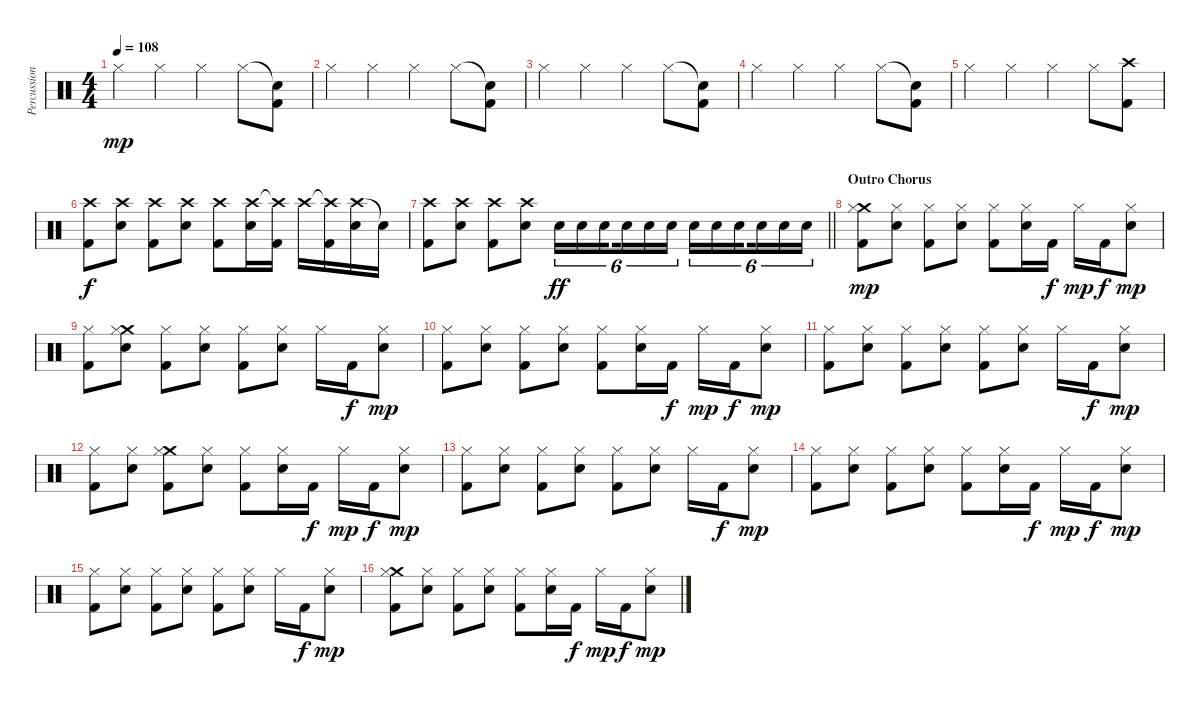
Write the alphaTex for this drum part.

\track ("Percussion" "Percussion") {instrument percussion}
\staff {score}
\articulation defaults
\ts (4 4)
\tempo 108
\clef neutral
\ks c "Hi-Hat (closed)".4{dy mp} "Hi-Hat (closed)".4 "Hi-Hat (closed)".4 "Hi-Hat (closed)".8
("Snare (hit)"{t} "Kick (hit) 2").8 |
"Hi-Hat (closed)".4 "Hi-Hat (closed)".4 "Hi-Hat (closed)".4 "Hi-Hat (closed)".8 ("Snare (hit)"{t} "Kick (hit) 2").8 |
"Hi-Hat (closed)".4 "Hi-Hat (closed)".4 "Hi-Hat (closed)".4 "Hi-Hat (closed)".8 ("Snare (hit)"{t} "Kick (hit) 2").8 |
"Hi-Hat (closed)".4 "Hi-Hat (closed)".4 "Hi-Hat (closed)".4 "Hi-Hat (closed)".8 ("Snare (hit)"{t} "Kick (hit) 2").8 |
"Hi-Hat (closed)".4 "Hi-Hat (closed)".4 "Hi-Hat (closed)".4 "Hi-Hat (closed)".8 ("Crash high (hit)" "Kick (hit) 2").8 |
("Crash high (hit)" "Kick (hit) 2").8{dy f} ("Crash high (hit)" "Snare (hit) 2").8 ("Crash high (hit)" "Kick (hit) 2").8 ("Crash high (hit)" "Snare (hit) 2").8 ("Crash high (hit)" "Kick (hit) 2").8 ("Crash high (hit)" "Snare (hit) 2").16 ("Crash high (hit)"{t} "Kick (hit) 2").16 "Crash high (hit)".16 ("Crash high (hit)"{t} "Kick (hit) 2").16 ("Crash high (hit)" "Snare (hit) 2").16 "Snare (hit)"{t}.16 |
\barLineRight lightlight
("Crash high (hit)" "Kick (hit) 2").8 ("Crash high (hit)" "Snare (hit) 2").8 ("Crash high (hit)" "Kick (hit) 2").8 ("Crash high (hit)" "Snare (hit) 2").8 "Snare (hit) 2".16{tu (6 4) dy ff} "Snare (hit) 2".16{tu (6 4)} "Snare (hit) 2".16{tu (6 4) beam splitsecondary} "Snare (hit) 2".16{tu (6 4)} "Snare (hit) 2".16{tu (6 4)} "Snare (hit) 2".16{tu (6 4)} "Snare (hit) 2".16{tu (6 4)} "Snare (hit) 2".16{tu (6 4)} "Snare (hit) 2".16{tu (6 4) beam splitsecondary} "Snare (hit) 2".16{tu (6 4)} "Snare (hit) 2".16{tu (6 4)} "Snare (hit) 2".16{tu (6 4)} |
\section ("" "Outro Chorus")
("Crash medium (hit)" "Hi-Hat (closed)" "Kick (hit) 2").8{dy mp} ("Hi-Hat (closed)" "Snare (hit) 2").8 ("Hi-Hat (closed)" "Kick (hit) 2").8 ("Hi-Hat (closed)" "Snare (hit) 2").8 ("Hi-Hat (closed)" "Kick (hit) 2").8 ("Hi-Hat (closed)" "Snare (hit) 2").16 "Kick (hit) 2".16{dy f} "Hi-Hat (closed)".16{dy mp} "Kick (hit) 2".16{dy f} ("Hi-Hat (closed)" "Snare (hit) 2").8{dy mp} |
("Hi-Hat (closed)" "Kick (hit) 2").8 ("Crash medium (hit)" "Hi-Hat (closed)" "Snare (hit) 2").8 ("Hi-Hat (closed)" "Kick (hit) 2").8 ("Hi-Hat (closed)" "Snare (hit) 2").8 ("Hi-Hat (closed)" "Kick (hit) 2").8 ("Hi-Hat (closed)" "Snare (hit) 2").8 "Hi-Hat (closed)".16 "Kick (hit) 2".16{dy f} ("Hi-Hat (closed)" "Snare (hit) 2").8{dy mp} |
("Hi-Hat (closed)" "Kick (hit) 2").8 ("Hi-Hat (closed)" "Snare (hit) 2").8 ("Hi-Hat (closed)" "Kick (hit) 2").8 ("Hi-Hat (closed)" "Snare (hit) 2").8 ("Hi-Hat (closed)" "Kick (hit) 2").8 ("Hi-Hat (closed)" "Snare (hit) 2").16 "Kick (hit) 2".16{dy f} "Hi-Hat (closed)".16{dy mp} "Kick (hit) 2".16{dy f} ("Hi-Hat (closed)" "Snare (hit) 2").8{dy mp} |
("Hi-Hat (closed)" "Kick (hit) 2").8 ("Hi-Hat (closed)" "Snare (hit) 2").8 ("Hi-Hat (closed)" "Kick (hit) 2").8 ("Hi-Hat (closed)" "Snare (hit) 2").8 ("Hi-Hat (closed)" "Kick (hit) 2").8 ("Hi-Hat (closed)" "Snare (hit) 2").8 "Hi-Hat (closed)".16 "Kick (hit) 2".16{dy f} ("Hi-Hat (closed)" "Snare (hit) 2").8{dy mp} |
("Hi-Hat (closed)" "Kick (hit) 2").8 ("Hi-Hat (closed)" "Snare (hit) 2").8 ("Crash medium (hit)" "Hi-Hat (closed)" "Kick (hit) 2").8 ("Hi-Hat (closed)" "Snare (hit) 2").8 ("Hi-Hat (closed)" "Kick (hit) 2").8 ("Hi-Hat (closed)" "Snare (hit) 2").16 "Kick (hit) 2".16{dy f} "Hi-Hat (closed)".16{dy mp} "Kick (hit) 2".16{dy f} ("Hi-Hat (closed)" "Snare (hit) 2").8{dy mp} |
("Hi-Hat (closed)" "Kick (hit) 2").8 ("Hi-Hat (closed)" "Snare (hit) 2").8 ("Hi-Hat (closed)" "Kick (hit) 2").8 ("Hi-Hat (closed)" "Snare (hit) 2").8 ("Hi-Hat (closed)" "Kick (hit) 2").8 ("Hi-Hat (closed)" "Snare (hit) 2").8 "Hi-Hat (closed)".16 "Kick (hit) 2".16{dy f} ("Hi-Hat (closed)" "Snare (hit) 2").8{dy mp} |
("Hi-Hat (closed)" "Kick (hit) 2").8 ("Hi-Hat (closed)" "Snare (hit) 2").8 ("Hi-Hat (closed)" "Kick (hit) 2").8 ("Hi-Hat (closed)" "Snare (hit) 2").8 ("Hi-Hat (closed)" "Kick (hit) 2").8 ("Hi-Hat (closed)" "Snare (hit) 2").16 "Kick (hit) 2".16{dy f} "Hi-Hat (closed)".16{dy mp} "Kick (hit) 2".16{dy f} ("Hi-Hat (closed)" "Snare (hit) 2").8{dy mp} |
("Hi-Hat (closed)" "Kick (hit) 2").8 ("Hi-Hat (closed)" "Snare (hit) 2").8 ("Hi-Hat (closed)" "Kick (hit) 2").8 ("Hi-Hat (closed)" "Snare (hit) 2").8 ("Hi-Hat (closed)" "Kick (hit) 2").8 ("Hi-Hat (closed)" "Snare (hit) 2").8 "Hi-Hat (closed)".16 "Kick (hit) 2".16{dy f} ("Hi-Hat (closed)" "Snare (hit) 2").8{dy mp} |
("Crash medium (hit)" "Hi-Hat (closed)" "Kick (hit) 2").8 ("Hi-Hat (closed)" "Snare (hit) 2").8 ("Hi-Hat (closed)" "Kick (hit) 2").8 ("Hi-Hat (closed)" "Snare (hit) 2").8 ("Hi-Hat (closed)" "Kick (hit) 2").8 ("Hi-Hat (closed)" "Snare (hit) 2").16 "Kick (hit) 2".16{dy f} "Hi-Hat (closed)".16{dy mp} "Kick (hit) 2".16{dy f} ("Hi-Hat (closed)" "Snare (hit) 2").8{dy mp}
